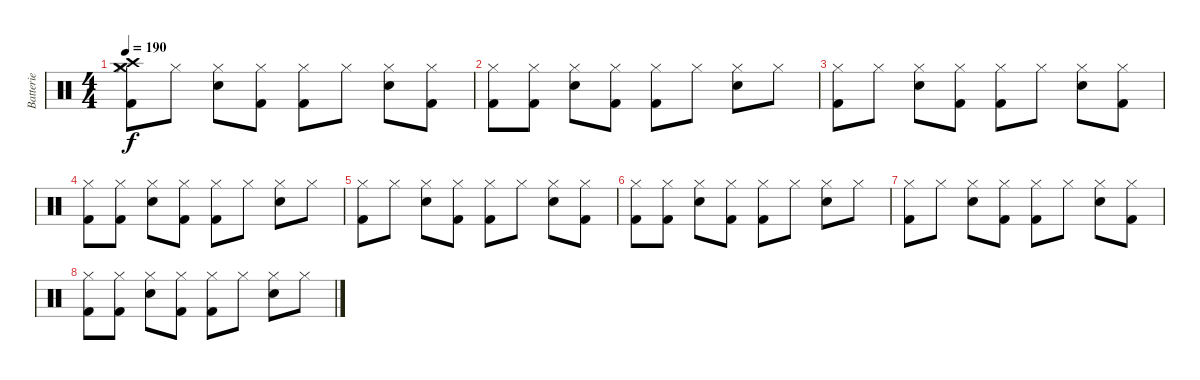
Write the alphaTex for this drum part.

\track ("Batterie" "Batterie") {instrument percussion}
\staff {score}
\articulation defaults
\ts (4 4)
\tempo 190
\clef neutral
\ks c
("Hi-Hat (closed)" "Crash high (hit)" "Crash medium (hit)" "Kick (hit) 2").8{dy f} "Hi-Hat (closed)".8 ("Hi-Hat (closed)" "Electric Snare (hit)").8 ("Hi-Hat (closed)" "Kick (hit) 2").8 ("Hi-Hat (closed)" "Kick (hit) 2").8 "Hi-Hat (closed)".8 ("Hi-Hat (closed)" "Electric Snare (hit)").8 ("Hi-Hat (closed)" "Kick (hit) 2").8 |
("Hi-Hat (closed)" "Kick (hit) 2").8{volume 11} ("Hi-Hat (closed)" "Kick (hit) 2").8 ("Hi-Hat (closed)" "Electric Snare (hit)").8 ("Hi-Hat (closed)" "Kick (hit) 2").8 ("Hi-Hat (closed)" "Kick (hit) 2").8 "Hi-Hat (closed)".8 ("Hi-Hat (closed)" "Electric Snare (hit)").8 "Hi-Hat (closed)".8 |
("Hi-Hat (closed)" "Kick (hit) 2").8{volume 9} "Hi-Hat (closed)".8 ("Hi-Hat (closed)" "Electric Snare (hit)").8 ("Hi-Hat (closed)" "Kick (hit) 2").8 ("Hi-Hat (closed)" "Kick (hit) 2").8 "Hi-Hat (closed)".8 ("Hi-Hat (closed)" "Electric Snare (hit)").8 ("Hi-Hat (closed)" "Kick (hit) 2").8 |
("Hi-Hat (closed)" "Kick (hit) 2").8{volume 7} ("Hi-Hat (closed)" "Kick (hit) 2").8 ("Hi-Hat (closed)" "Electric Snare (hit)").8 ("Hi-Hat (closed)" "Kick (hit) 2").8 ("Hi-Hat (closed)" "Kick (hit) 2").8 "Hi-Hat (closed)".8 ("Hi-Hat (closed)" "Electric Snare (hit)").8 "Hi-Hat (closed)".8 |
("Hi-Hat (closed)" "Kick (hit) 2").8{volume 5} "Hi-Hat (closed)".8 ("Hi-Hat (closed)" "Electric Snare (hit)").8 ("Hi-Hat (closed)" "Kick (hit) 2").8 ("Hi-Hat (closed)" "Kick (hit) 2").8 "Hi-Hat (closed)".8 ("Hi-Hat (closed)" "Electric Snare (hit)").8 ("Hi-Hat (closed)" "Kick (hit) 2").8 |
("Hi-Hat (closed)" "Kick (hit) 2").8{volume 3} ("Hi-Hat (closed)" "Kick (hit) 2").8 ("Hi-Hat (closed)" "Electric Snare (hit)").8 ("Hi-Hat (closed)" "Kick (hit) 2").8 ("Hi-Hat (closed)" "Kick (hit) 2").8 "Hi-Hat (closed)".8 ("Hi-Hat (closed)" "Electric Snare (hit)").8 "Hi-Hat (closed)".8 |
("Hi-Hat (closed)" "Kick (hit) 2").8 "Hi-Hat (closed)".8{volume 1} ("Hi-Hat (closed)" "Electric Snare (hit)").8 ("Hi-Hat (closed)" "Kick (hit) 2").8 ("Hi-Hat (closed)" "Kick (hit) 2").8 "Hi-Hat (closed)".8 ("Hi-Hat (closed)" "Electric Snare (hit)").8 ("Hi-Hat (closed)" "Kick (hit) 2").8 |
("Hi-Hat (closed)" "Kick (hit) 2").8{volume 0} ("Hi-Hat (closed)" "Kick (hit) 2").8 ("Hi-Hat (closed)" "Electric Snare (hit)").8 ("Hi-Hat (closed)" "Kick (hit) 2").8 ("Hi-Hat (closed)" "Kick (hit) 2").8 "Hi-Hat (closed)".8 ("Hi-Hat (closed)" "Electric Snare (hit)").8 "Hi-Hat (closed)".8
